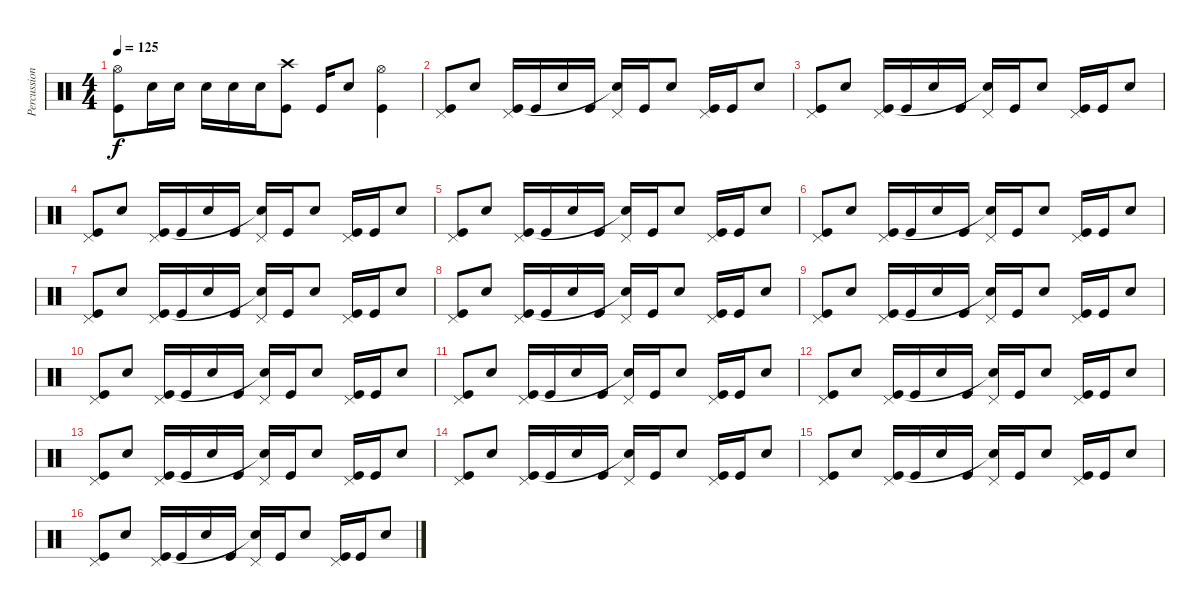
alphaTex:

\track ("Percussion" "Percussion") {instrument percussion}
\staff {score}
\articulation defaults
\ts (4 4)
\tempo 125
\clef neutral
\ks c
("Hi-Hat (open)" "Kick (hit)").8{dy f} "Electric Snare (hit)".16 "Electric Snare (hit)".16 "Electric Snare (hit)".16 "Electric Snare (hit)".16 "Electric Snare (hit)".16 ("Crash high (hit)" "Kick (hit)").8 "Kick (hit)".16 "Electric Snare (hit)".8 ("Hi-Hat (open)" "Kick (hit)").4 |
("Pedal Hi-Hat (hit)" "Kick (hit)").8 "Electric Snare (hit)".8 ("Pedal Hi-Hat (hit)" "Kick (hit)").16 "Kick (hit)".16 "Electric Snare (hit)".16 "Kick (hit)".16 ("Pedal Hi-Hat (hit)" "Snare (hit)"{t}).16 "Kick (hit)".16 "Electric Snare (hit)".8 ("Pedal Hi-Hat (hit)" "Kick (hit)").16 "Kick (hit)".16 "Electric Snare (hit)".8 |
("Pedal Hi-Hat (hit)" "Kick (hit)").8 "Electric Snare (hit)".8 ("Pedal Hi-Hat (hit)" "Kick (hit)").16 "Kick (hit)".16 "Electric Snare (hit)".16 "Kick (hit)".16 ("Pedal Hi-Hat (hit)" "Snare (hit)"{t}).16 "Kick (hit)".16 "Electric Snare (hit)".8 ("Pedal Hi-Hat (hit)" "Kick (hit)").16 "Kick (hit)".16 "Electric Snare (hit)".8 |
("Pedal Hi-Hat (hit)" "Kick (hit)").8 "Electric Snare (hit)".8 ("Pedal Hi-Hat (hit)" "Kick (hit)").16 "Kick (hit)".16 "Electric Snare (hit)".16 "Kick (hit)".16 ("Pedal Hi-Hat (hit)" "Snare (hit)"{t}).16 "Kick (hit)".16 "Electric Snare (hit)".8 ("Pedal Hi-Hat (hit)" "Kick (hit)").16 "Kick (hit)".16 "Electric Snare (hit)".8 |
("Pedal Hi-Hat (hit)" "Kick (hit)").8 "Electric Snare (hit)".8 ("Pedal Hi-Hat (hit)" "Kick (hit)").16 "Kick (hit)".16 "Electric Snare (hit)".16 "Kick (hit)".16 ("Pedal Hi-Hat (hit)" "Snare (hit)"{t}).16 "Kick (hit)".16 "Electric Snare (hit)".8 ("Pedal Hi-Hat (hit)" "Kick (hit)").16 "Kick (hit)".16 "Electric Snare (hit)".8 |
("Pedal Hi-Hat (hit)" "Kick (hit)").8 "Electric Snare (hit)".8 ("Pedal Hi-Hat (hit)" "Kick (hit)").16 "Kick (hit)".16 "Electric Snare (hit)".16 "Kick (hit)".16 ("Pedal Hi-Hat (hit)" "Snare (hit)"{t}).16 "Kick (hit)".16 "Electric Snare (hit)".8 ("Pedal Hi-Hat (hit)" "Kick (hit)").16 "Kick (hit)".16 "Electric Snare (hit)".8 |
("Pedal Hi-Hat (hit)" "Kick (hit)").8 "Electric Snare (hit)".8 ("Pedal Hi-Hat (hit)" "Kick (hit)").16 "Kick (hit)".16 "Electric Snare (hit)".16 "Kick (hit)".16 ("Pedal Hi-Hat (hit)" "Snare (hit)"{t}).16 "Kick (hit)".16 "Electric Snare (hit)".8 ("Pedal Hi-Hat (hit)" "Kick (hit)").16 "Kick (hit)".16 "Electric Snare (hit)".8 |
("Pedal Hi-Hat (hit)" "Kick (hit)").8 "Electric Snare (hit)".8 ("Pedal Hi-Hat (hit)" "Kick (hit)").16 "Kick (hit)".16 "Electric Snare (hit)".16 "Kick (hit)".16 ("Pedal Hi-Hat (hit)" "Snare (hit)"{t}).16 "Kick (hit)".16 "Electric Snare (hit)".8 ("Pedal Hi-Hat (hit)" "Kick (hit)").16 "Kick (hit)".16 "Electric Snare (hit)".8 |
("Pedal Hi-Hat (hit)" "Kick (hit)").8 "Electric Snare (hit)".8 ("Pedal Hi-Hat (hit)" "Kick (hit)").16 "Kick (hit)".16 "Electric Snare (hit)".16 "Kick (hit)".16 ("Pedal Hi-Hat (hit)" "Snare (hit)"{t}).16 "Kick (hit)".16 "Electric Snare (hit)".8 ("Pedal Hi-Hat (hit)" "Kick (hit)").16 "Kick (hit)".16 "Electric Snare (hit)".8 |
("Pedal Hi-Hat (hit)" "Kick (hit)").8 "Electric Snare (hit)".8 ("Pedal Hi-Hat (hit)" "Kick (hit)").16 "Kick (hit)".16 "Electric Snare (hit)".16 "Kick (hit)".16 ("Pedal Hi-Hat (hit)" "Snare (hit)"{t}).16 "Kick (hit)".16 "Electric Snare (hit)".8 ("Pedal Hi-Hat (hit)" "Kick (hit)").16 "Kick (hit)".16 "Electric Snare (hit)".8 |
("Pedal Hi-Hat (hit)" "Kick (hit)").8 "Electric Snare (hit)".8 ("Pedal Hi-Hat (hit)" "Kick (hit)").16 "Kick (hit)".16 "Electric Snare (hit)".16 "Kick (hit)".16 ("Pedal Hi-Hat (hit)" "Snare (hit)"{t}).16 "Kick (hit)".16 "Electric Snare (hit)".8 ("Pedal Hi-Hat (hit)" "Kick (hit)").16 "Kick (hit)".16 "Electric Snare (hit)".8 |
("Pedal Hi-Hat (hit)" "Kick (hit)").8 "Electric Snare (hit)".8 ("Pedal Hi-Hat (hit)" "Kick (hit)").16 "Kick (hit)".16 "Electric Snare (hit)".16 "Kick (hit)".16 ("Pedal Hi-Hat (hit)" "Snare (hit)"{t}).16 "Kick (hit)".16 "Electric Snare (hit)".8 ("Pedal Hi-Hat (hit)" "Kick (hit)").16 "Kick (hit)".16 "Electric Snare (hit)".8 |
("Pedal Hi-Hat (hit)" "Kick (hit)").8 "Electric Snare (hit)".8 ("Pedal Hi-Hat (hit)" "Kick (hit)").16 "Kick (hit)".16 "Electric Snare (hit)".16 "Kick (hit)".16 ("Pedal Hi-Hat (hit)" "Snare (hit)"{t}).16 "Kick (hit)".16 "Electric Snare (hit)".8 ("Pedal Hi-Hat (hit)" "Kick (hit)").16 "Kick (hit)".16 "Electric Snare (hit)".8 |
("Pedal Hi-Hat (hit)" "Kick (hit)").8 "Electric Snare (hit)".8 ("Pedal Hi-Hat (hit)" "Kick (hit)").16 "Kick (hit)".16 "Electric Snare (hit)".16 "Kick (hit)".16 ("Pedal Hi-Hat (hit)" "Snare (hit)"{t}).16 "Kick (hit)".16 "Electric Snare (hit)".8 ("Pedal Hi-Hat (hit)" "Kick (hit)").16 "Kick (hit)".16 "Electric Snare (hit)".8 |
("Pedal Hi-Hat (hit)" "Kick (hit)").8 "Electric Snare (hit)".8 ("Pedal Hi-Hat (hit)" "Kick (hit)").16 "Kick (hit)".16 "Electric Snare (hit)".16 "Kick (hit)".16 ("Pedal Hi-Hat (hit)" "Snare (hit)"{t}).16 "Kick (hit)".16 "Electric Snare (hit)".8 ("Pedal Hi-Hat (hit)" "Kick (hit)").16 "Kick (hit)".16 "Electric Snare (hit)".8 |
("Pedal Hi-Hat (hit)" "Kick (hit)").8 "Electric Snare (hit)".8 ("Pedal Hi-Hat (hit)" "Kick (hit)").16 "Kick (hit)".16 "Electric Snare (hit)".16 "Kick (hit)".16 ("Pedal Hi-Hat (hit)" "Snare (hit)"{t}).16 "Kick (hit)".16 "Electric Snare (hit)".8 ("Pedal Hi-Hat (hit)" "Kick (hit)").16 "Kick (hit)".16 "Electric Snare (hit)".8
